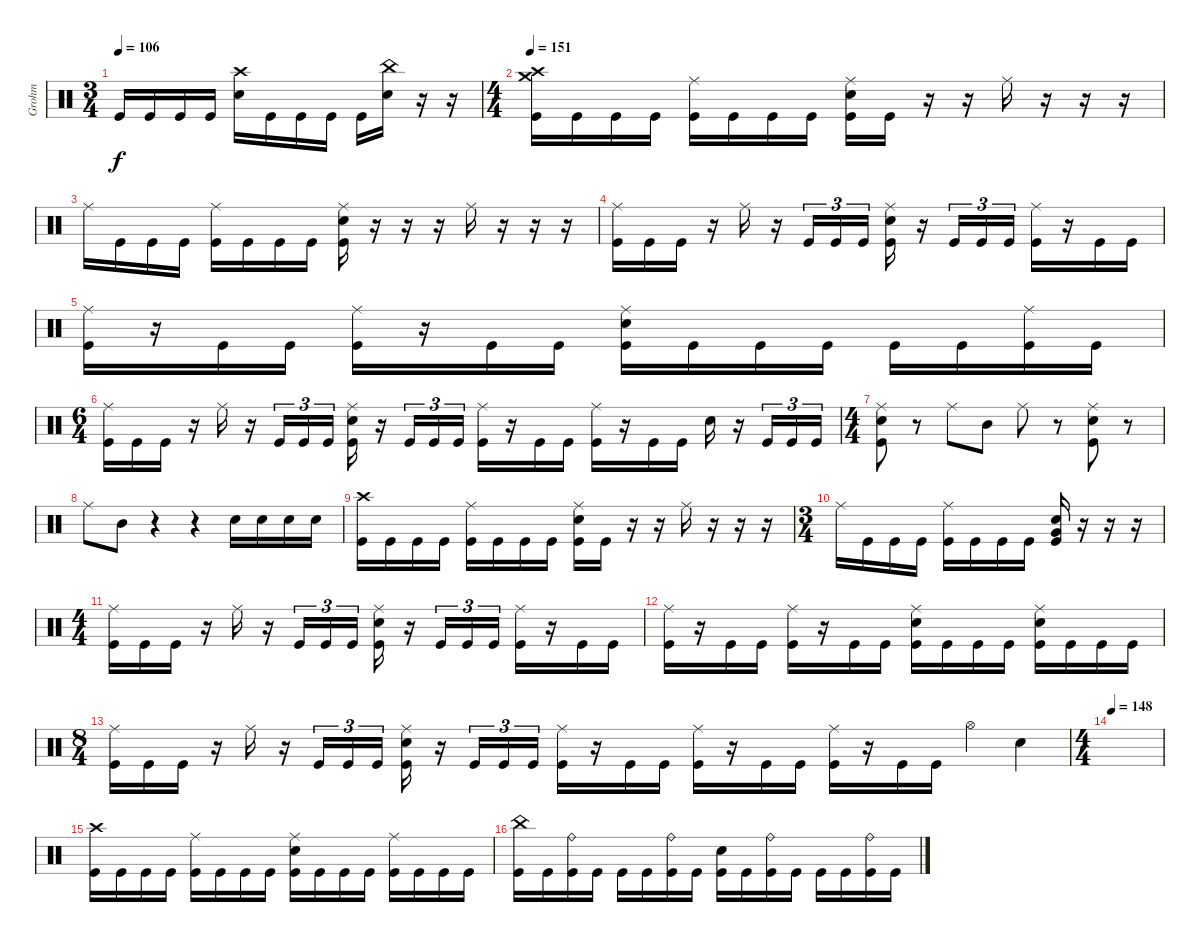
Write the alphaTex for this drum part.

\track ("Grohm" "Grohm") {instrument percussion}
\staff {score}
\articulation defaults
\ts (3 4)
\tempo 106
\clef neutral
\ks c "Kick (hit)".16{dy f} "Kick (hit)".16 "Kick (hit)".16 "Kick (hit)".16
("Snare (hit) 2" "Crash high (hit)").16 "Kick (hit)".16 "Kick (hit)".16 "Kick (hit)".16 "Kick (hit)".16 ("Snare (hit) 2" "China (hit)").16 r.16 r.16 |
\ts (4 4)
\tempo 151
("Crash medium (hit)" "Crash high (hit)" "Kick (hit)").16 "Kick (hit)".16 "Kick (hit)".16 "Kick (hit)".16 ("Ride (middle)" "Kick (hit)").16 "Kick (hit)".16 "Kick (hit)".16 "Kick (hit)".16 ("Ride (middle)" "Snare (hit) 2" "Kick (hit)").16 "Kick (hit)".16 r.16 r.16 "Ride (middle)".16 r.16 r.16 r.16 |
"Ride (middle)".16 "Kick (hit)".16 "Kick (hit)".16 "Kick (hit)".16 ("Ride (middle)" "Kick (hit)").16 "Kick (hit)".16 "Kick (hit)".16 "Kick (hit)".16 ("Ride (middle)" "Snare (hit) 2" "Kick (hit)").16 r.16 r.16 r.16 "Ride (middle)".16 r.16 r.16 r.16 |
("Ride (middle)" "Kick (hit)").16 "Kick (hit)".16 "Kick (hit)".16 r.16 "Ride (middle)".16 r.16 "Kick (hit)".16{tu (3 2)} "Kick (hit)".16{tu (3 2)} "Kick (hit)".16{tu (3 2)} ("Ride (middle)" "Snare (hit) 2" "Kick (hit)").16 r.16 "Kick (hit)".16{tu (3 2)} "Kick (hit)".16{tu (3 2)} "Kick (hit)".16{tu (3 2)} ("Ride (middle)" "Kick (hit)").16 r.16 "Kick (hit)".16 "Kick (hit)".16 |
("Ride (middle)" "Kick (hit)").16 r.16 "Kick (hit)".16 "Kick (hit)".16 ("Ride (middle)" "Kick (hit)").16 r.16 "Kick (hit)".16 "Kick (hit)".16 ("Ride (middle)" "Snare (hit) 2" "Kick (hit)").16 "Kick (hit)".16 "Kick (hit)".16 "Kick (hit)".16 "Kick (hit)".16 "Kick (hit)".16 ("Ride (middle)" "Kick (hit)").16 "Kick (hit)".16 |
\ts (6 4)
("Ride (middle)" "Kick (hit)").16 "Kick (hit)".16 "Kick (hit)".16 r.16 "Ride (middle)".16 r.16 "Kick (hit)".16{tu (3 2)} "Kick (hit)".16{tu (3 2)} "Kick (hit)".16{tu (3 2) beam splitsecondary} ("Ride (middle)" "Snare (hit) 2" "Kick (hit)").16 r.16 "Kick (hit)".16{tu (3 2)} "Kick (hit)".16{tu (3 2)} "Kick (hit)".16{tu (3 2)} ("Ride (middle)" "Kick (hit)").16 r.16 "Kick (hit)".16 "Kick (hit)".16 ("Ride (middle)" "Kick (hit)").16 r.16 "Kick (hit)".16 "Kick (hit)".16 "Snare (hit) 2".16 r.16 "Kick (hit)".16{tu (3 2)} "Kick (hit)".16{tu (3 2)} "Kick (hit)".16{tu (3 2)} |
\ts (4 4)
("Ride (middle)" "Snare (hit) 2" "Kick (hit)").8 r.8 "Ride (middle)".8 "Mid Tom (hit)".8 "Ride (middle)".8 r.8 ("Ride (middle)" "Snare (hit) 2" "Kick (hit)").8 r.8 |
"Ride (middle)".8 "Mid Tom (hit)".8 r.4 r.4 "Snare (hit) 2".16 "Snare (hit) 2".16 "Snare (hit) 2".16 "Snare (hit) 2".16 |
("Crash high (hit)" "Kick (hit)").16 "Kick (hit)".16 "Kick (hit)".16 "Kick (hit)".16 ("Ride (middle)" "Kick (hit)").16 "Kick (hit)".16 "Kick (hit)".16 "Kick (hit)".16 ("Ride (middle)" "Snare (hit) 2" "Kick (hit)").16 "Kick (hit)".16 r.16 r.16 "Ride (middle)".16 r.16 r.16 r.16 |
\ts (3 4)
"Ride (middle)".16 "Kick (hit)".16 "Kick (hit)".16 "Kick (hit)".16 ("Ride (middle)" "Kick (hit)").16 "Kick (hit)".16 "Kick (hit)".16 "Kick (hit)".16 ("Very Low Tom (hit)" "Snare (hit) 2" "Kick (hit)").16 r.16 r.16 r.16 |
\ts (4 4)
("Ride (middle)" "Kick (hit)").16 "Kick (hit)".16 "Kick (hit)".16 r.16 "Ride (middle)".16 r.16 "Kick (hit)".16{tu (3 2)} "Kick (hit)".16{tu (3 2)} "Kick (hit)".16{tu (3 2)} ("Ride (middle)" "Snare (hit) 2" "Kick (hit)").16 r.16 "Kick (hit)".16{tu (3 2)} "Kick (hit)".16{tu (3 2)} "Kick (hit)".16{tu (3 2)} ("Ride (middle)" "Kick (hit)").16 r.16 "Kick (hit)".16 "Kick (hit)".16 |
("Ride (middle)" "Kick (hit)").16 r.16 "Kick (hit)".16 "Kick (hit)".16 ("Ride (middle)" "Kick (hit)").16 r.16 "Kick (hit)".16 "Kick (hit)".16 ("Ride (middle)" "Snare (hit) 2" "Kick (hit)").16 "Kick (hit)".16 "Kick (hit)".16 "Kick (hit)".16 ("Ride (middle)" "Snare (hit) 2" "Kick (hit)").16 "Kick (hit)".16 "Kick (hit)".16 "Kick (hit)".16 |
\ts (8 4)
("Ride (middle)" "Kick (hit)").16 "Kick (hit)".16 "Kick (hit)".16 r.16 "Ride (middle)".16 r.16 "Kick (hit)".16{tu (3 2)} "Kick (hit)".16{tu (3 2)} "Kick (hit)".16{tu (3 2)} ("Ride (middle)" "Snare (hit) 2" "Kick (hit)").16 r.16 "Kick (hit)".16{tu (3 2)} "Kick (hit)".16{tu (3 2)} "Kick (hit)".16{tu (3 2)} ("Ride (middle)" "Kick (hit)").16 r.16 "Kick (hit)".16 "Kick (hit)".16 ("Ride (middle)" "Kick (hit)").16 r.16 "Kick (hit)".16 "Kick (hit)".16 ("Ride (middle)" "Kick (hit)").16 r.16 "Kick (hit)".16 "Kick (hit)".16 "Hi-Hat (open)".4 "Snare (hit) 2".4 |
\ts (4 4)
\tempo 148
|
("Crash high (hit)" "Kick (hit)").16 "Kick (hit)".16 "Kick (hit)".16 "Kick (hit)".16 ("Ride (middle)" "Kick (hit)").16 "Kick (hit)".16 "Kick (hit)".16 "Kick (hit)".16 ("Ride (middle)" "Snare (hit) 2" "Kick (hit)").16 "Kick (hit)".16 "Kick (hit)".16 "Kick (hit)".16 ("Ride (middle)" "Kick (hit)").16 "Kick (hit)".16 "Kick (hit)".16 "Kick (hit)".16 |
("China (hit)" "Kick (hit)").16 "Kick (hit)".16 ("Ride (bell)" "Kick (hit)").16 "Kick (hit)".16 "Kick (hit)".16 "Kick (hit)".16 ("Ride (bell)" "Kick (hit)").16 "Kick (hit)".16 ("Snare (hit) 2" "Kick (hit)").16 "Kick (hit)".16 ("Ride (bell)" "Kick (hit)").16 "Kick (hit)".16 "Kick (hit)".16 "Kick (hit)".16 ("Ride (bell)" "Kick (hit)").16 "Kick (hit)".16
